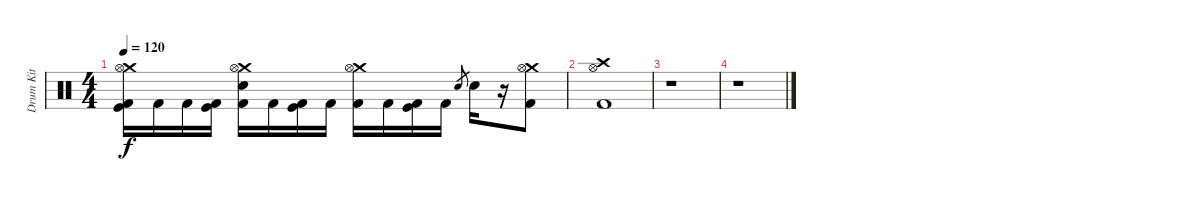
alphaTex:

\track ("Drum Kit" "Drum Kit") {instrument percussion}
\staff {score}
\articulation defaults
\ts (4 4)
\tempo 120
\clef neutral
\ks c
("Crash medium (hit)" "Hi-Hat (open)" "Kick (hit)" "Kick (hit) 2").16{dy f} "Kick (hit) 2".16 "Kick (hit) 2".16 ("Kick (hit)" "Kick (hit) 2").16 ("Crash medium (hit)" "Hi-Hat (open)" "Electric Snare (hit)" "Kick (hit) 2").16 "Kick (hit) 2".16 ("Kick (hit)" "Kick (hit) 2").16 "Kick (hit) 2".16 ("Crash medium (hit)" "Hi-Hat (open)" "Kick (hit) 2").16 "Kick (hit) 2".16 ("Kick (hit)" "Kick (hit) 2").16 "Kick (hit) 2".16 "Electric Snare (hit)".8{gr} "Electric Snare (hit)".16 r.16 ("Crash medium (hit)" "Hi-Hat (open)" "Kick (hit) 2").8 |
("Crash high (hit)" "Hi-Hat (open)" "Kick (hit) 2").1 |
r.1 |
r.1
